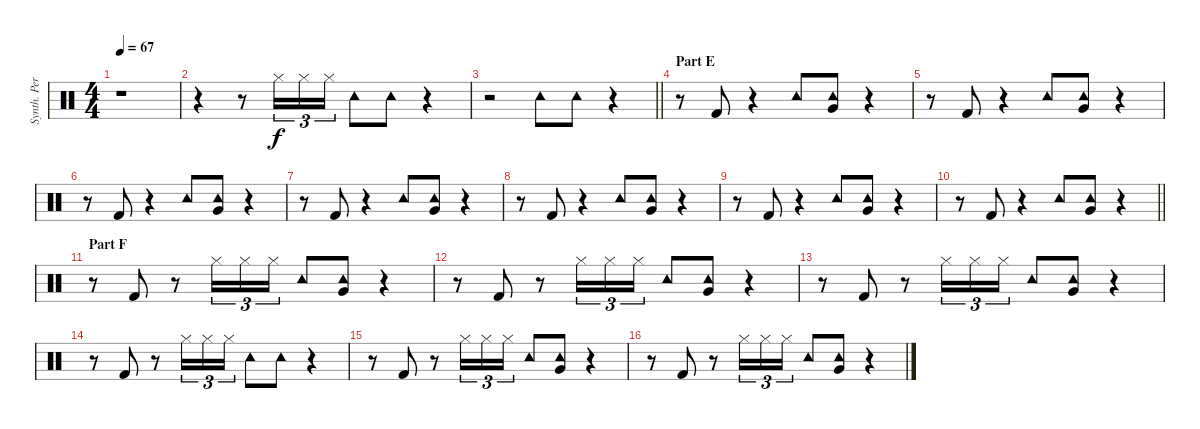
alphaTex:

\track ("Synth. Percussion" "Synth. Per") {instrument percussion}
\staff {score}
\articulation defaults
\ts (4 4)
\tempo 67
\clef neutral
\ks c
r.1{dy f} |
r.4 r.8 "Hi-Hat (closed)".16{tu (3 2)} "Hi-Hat (closed)".16{tu (3 2)} "Hi-Hat (closed)".16{tu (3 2)} "Tambourine (hit)".8 "Tambourine (hit)".8 r.4 |
\barLineRight lightlight
r.2 "Tambourine (hit)".8 "Tambourine (hit)".8 r.4 |
\section ("" "Part E")
r.8 "Kick (hit) 2".8 r.4 "Tambourine (hit)".8 ("Tambourine (hit)" "Very Low Tom (hit)").8 r.4 |
r.8 "Kick (hit) 2".8 r.4 "Tambourine (hit)".8 ("Tambourine (hit)" "Very Low Tom (hit)").8 r.4 |
r.8 "Kick (hit) 2".8 r.4 "Tambourine (hit)".8 ("Tambourine (hit)" "Very Low Tom (hit)").8 r.4 |
r.8 "Kick (hit) 2".8 r.4 "Tambourine (hit)".8 ("Tambourine (hit)" "Very Low Tom (hit)").8 r.4 |
r.8 "Kick (hit) 2".8 r.4 "Tambourine (hit)".8 ("Tambourine (hit)" "Very Low Tom (hit)").8 r.4 |
r.8 "Kick (hit) 2".8 r.4 "Tambourine (hit)".8 ("Tambourine (hit)" "Very Low Tom (hit)").8 r.4 |
\barLineRight lightlight
r.8 "Kick (hit) 2".8 r.4 "Tambourine (hit)".8 ("Tambourine (hit)" "Very Low Tom (hit)").8 r.4 |
\section ("" "Part F")
r.8 "Kick (hit) 2".8 r.8 "Hi-Hat (closed)".16{tu (3 2)} "Hi-Hat (closed)".16{tu (3 2)} "Hi-Hat (closed)".16{tu (3 2)} "Tambourine (hit)".8 ("Tambourine (hit)" "Very Low Tom (hit)").8 r.4 |
r.8 "Kick (hit) 2".8 r.8 "Hi-Hat (closed)".16{tu (3 2)} "Hi-Hat (closed)".16{tu (3 2)} "Hi-Hat (closed)".16{tu (3 2)} "Tambourine (hit)".8 ("Tambourine (hit)" "Very Low Tom (hit)").8 r.4 |
r.8 "Kick (hit) 2".8 r.8 "Hi-Hat (closed)".16{tu (3 2)} "Hi-Hat (closed)".16{tu (3 2)} "Hi-Hat (closed)".16{tu (3 2)} "Tambourine (hit)".8 ("Tambourine (hit)" "Very Low Tom (hit)").8 r.4 |
r.8 "Kick (hit) 2".8 r.8 "Hi-Hat (closed)".16{tu (3 2)} "Hi-Hat (closed)".16{tu (3 2)} "Hi-Hat (closed)".16{tu (3 2)} "Tambourine (hit)".8 "Tambourine (hit)".8 r.4 |
r.8 "Kick (hit) 2".8 r.8 "Hi-Hat (closed)".16{tu (3 2)} "Hi-Hat (closed)".16{tu (3 2)} "Hi-Hat (closed)".16{tu (3 2)} "Tambourine (hit)".8 ("Tambourine (hit)" "Very Low Tom (hit)").8 r.4 |
r.8 "Kick (hit) 2".8 r.8 "Hi-Hat (closed)".16{tu (3 2)} "Hi-Hat (closed)".16{tu (3 2)} "Hi-Hat (closed)".16{tu (3 2)} "Tambourine (hit)".8 ("Tambourine (hit)" "Very Low Tom (hit)").8 r.4
